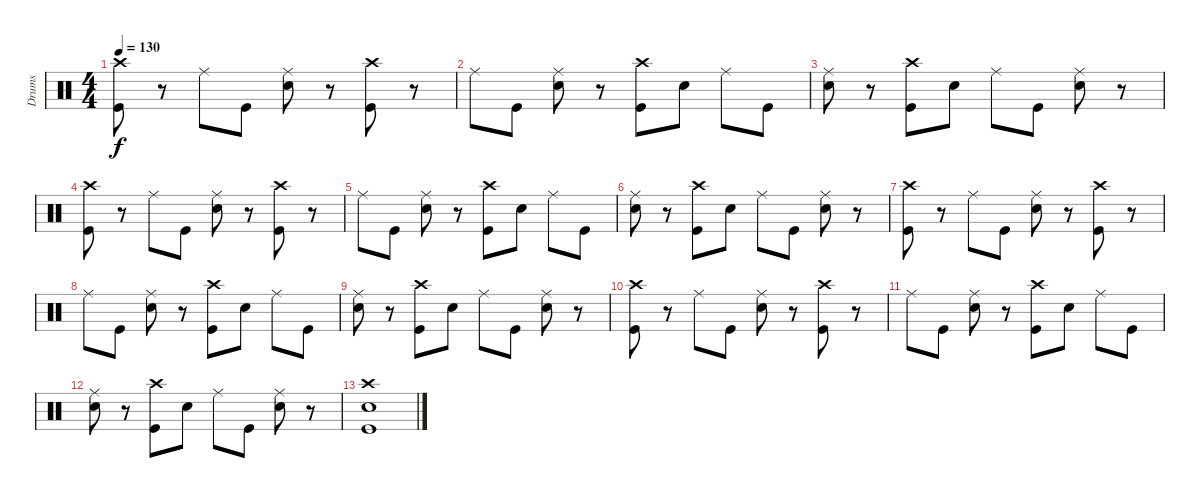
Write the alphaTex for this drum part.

\track ("Drums" "Drums") {instrument percussion}
\staff {score}
\articulation defaults
\ts (4 4)
\tempo 130
\clef neutral
\ks c
("Crash high (hit)" "Kick (hit)").8{dy f} r.8 "Ride (middle)".8 "Kick (hit)".8 ("Ride (middle)" "Snare (hit) 2").8 r.8 ("Crash high (hit)" "Kick (hit)").8 r.8 |
"Ride (middle)".8 "Kick (hit)".8 ("Ride (middle)" "Snare (hit) 2").8 r.8 ("Crash high (hit)" "Kick (hit)").8 "Snare (hit) 2".8 "Ride (middle)".8 "Kick (hit)".8 |
("Ride (middle)" "Snare (hit) 2").8 r.8 ("Crash high (hit)" "Kick (hit)").8 "Snare (hit) 2".8 "Ride (middle)".8 "Kick (hit)".8 ("Ride (middle)" "Snare (hit) 2").8 r.8 |
("Crash high (hit)" "Kick (hit)").8 r.8 "Ride (middle)".8 "Kick (hit)".8 ("Ride (middle)" "Snare (hit) 2").8 r.8 ("Crash high (hit)" "Kick (hit)").8 r.8 |
"Ride (middle)".8 "Kick (hit)".8 ("Ride (middle)" "Snare (hit) 2").8 r.8 ("Crash high (hit)" "Kick (hit)").8 "Snare (hit) 2".8 "Ride (middle)".8 "Kick (hit)".8 |
("Ride (middle)" "Snare (hit) 2").8 r.8 ("Crash high (hit)" "Kick (hit)").8 "Snare (hit) 2".8 "Ride (middle)".8 "Kick (hit)".8 ("Ride (middle)" "Snare (hit) 2").8 r.8 |
("Crash high (hit)" "Kick (hit)").8 r.8 "Ride (middle)".8 "Kick (hit)".8 ("Ride (middle)" "Snare (hit) 2").8 r.8 ("Crash high (hit)" "Kick (hit)").8 r.8 |
"Ride (middle)".8 "Kick (hit)".8 ("Ride (middle)" "Snare (hit) 2").8 r.8 ("Crash high (hit)" "Kick (hit)").8 "Snare (hit) 2".8 "Ride (middle)".8 "Kick (hit)".8 |
("Ride (middle)" "Snare (hit) 2").8 r.8 ("Crash high (hit)" "Kick (hit)").8 "Snare (hit) 2".8 "Ride (middle)".8 "Kick (hit)".8 ("Ride (middle)" "Snare (hit) 2").8 r.8 |
("Crash high (hit)" "Kick (hit)").8 r.8 "Ride (middle)".8 "Kick (hit)".8 ("Ride (middle)" "Snare (hit) 2").8 r.8 ("Crash high (hit)" "Kick (hit)").8 r.8 |
"Ride (middle)".8 "Kick (hit)".8 ("Ride (middle)" "Snare (hit) 2").8 r.8 ("Crash high (hit)" "Kick (hit)").8 "Snare (hit) 2".8 "Ride (middle)".8 "Kick (hit)".8 |
("Ride (middle)" "Snare (hit) 2").8 r.8 ("Crash high (hit)" "Kick (hit)").8 "Snare (hit) 2".8 "Ride (middle)".8 "Kick (hit)".8 ("Ride (middle)" "Snare (hit) 2").8 r.8 |
("Crash high (hit)" "Snare (hit) 2" "Kick (hit)").1
